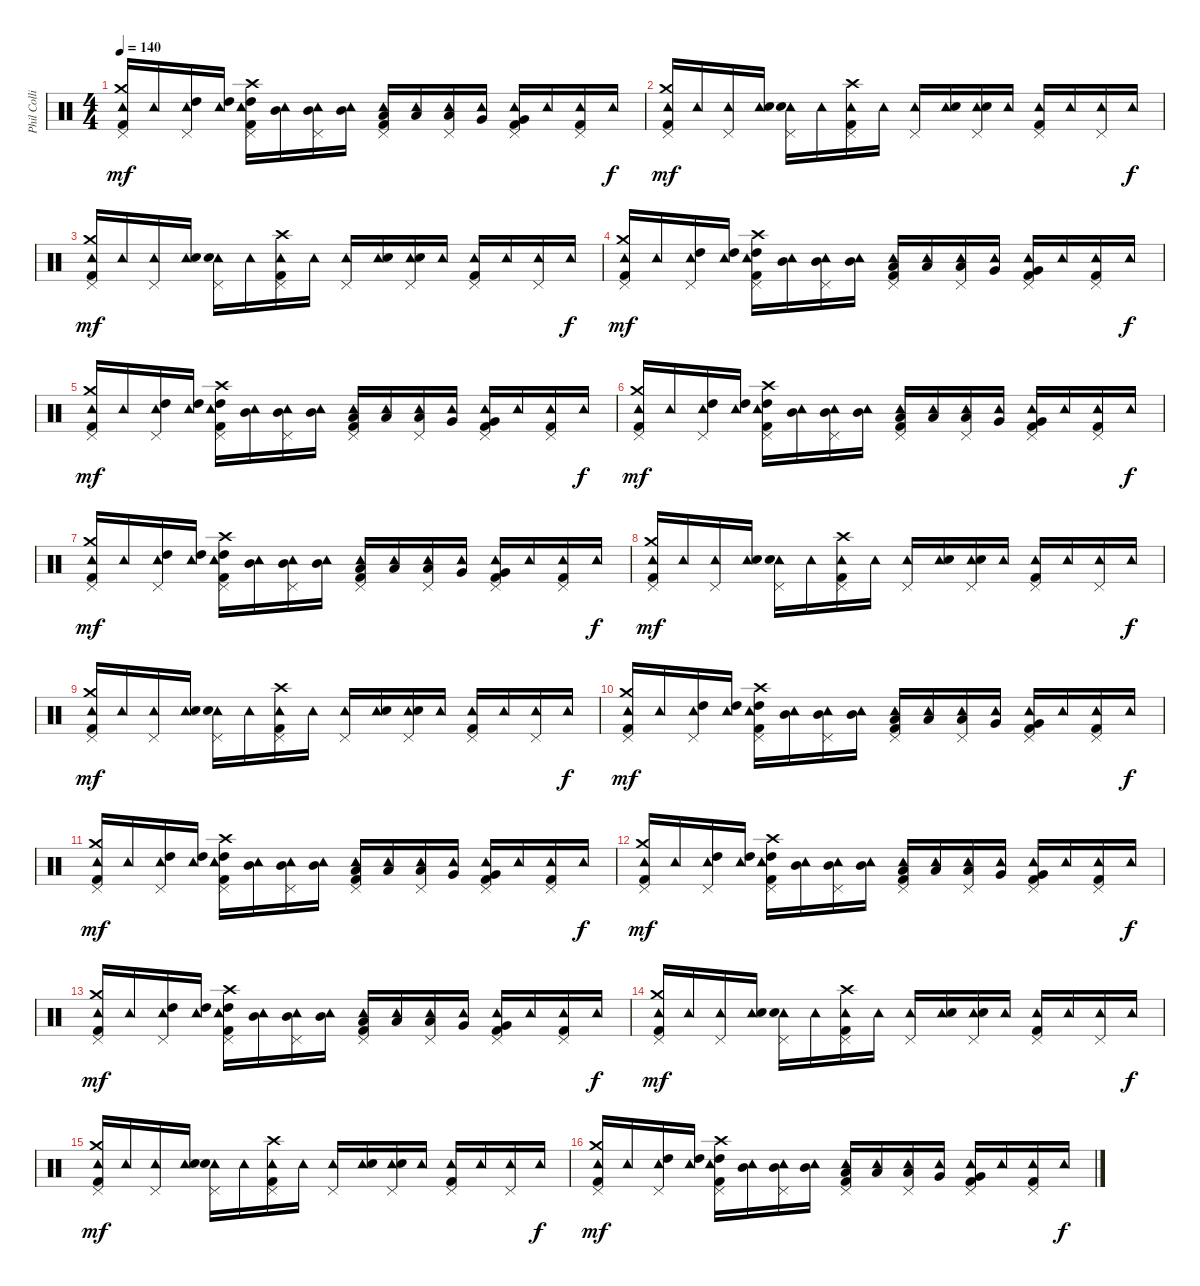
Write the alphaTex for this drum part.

\track ("Phil Collins (drums)" "Phil Colli") {instrument percussion}
\staff {score}
\articulation defaults
\ts (4 4)
\tempo 140
\clef neutral
\ks c
("Tambourine (hit)" "Crash medium (hit)" "Pedal Hi-Hat (hit)" "Kick (hit) 2").16{dy mf} "Tambourine (hit)".16 ("Tambourine (hit)" "High Tom (hit)" "Pedal Hi-Hat (hit)").16 ("Tambourine (hit)" "High Tom (hit)").16 ("Crash high (hit)" "Tambourine (hit)" "High Tom (hit)" "Pedal Hi-Hat (hit)" "Kick (hit) 2").16 ("Tambourine (hit)" "Mid Tom (hit)").16 ("Tambourine (hit)" "Mid Tom (hit)" "Pedal Hi-Hat (hit)").16 ("Tambourine (hit)" "Mid Tom (hit)").16 ("Tambourine (hit)" "Low Tom (hit)" "Pedal Hi-Hat (hit)" "Kick (hit) 2").16 ("Tambourine (hit)" "Low Tom (hit)").16 ("Tambourine (hit)" "Low Tom (hit)" "Pedal Hi-Hat (hit)").16 ("Tambourine (hit)" "Very Low Tom (hit)").16 ("Tambourine (hit)" "Very Low Tom (hit)" "Pedal Hi-Hat (hit)" "Kick (hit) 2").16 "Tambourine (hit)".16 ("Tambourine (hit)" "Pedal Hi-Hat (hit)" "Kick (hit) 2").16 "Tambourine (hit)".16{dy f} |
("Tambourine (hit)" "Crash medium (hit)" "Pedal Hi-Hat (hit)" "Kick (hit) 2").16{dy mf} "Tambourine (hit)".16 ("Tambourine (hit)" "Pedal Hi-Hat (hit)").16 ("Tambourine (hit)" "Electric Snare (hit)").16 ("Tambourine (hit)" "Pedal Hi-Hat (hit)" "Electric Snare (hit)").16 "Tambourine (hit)".16 ("Tambourine (hit)" "Crash high (hit)" "Pedal Hi-Hat (hit)" "Kick (hit) 2").16 "Tambourine (hit)".16 ("Tambourine (hit)" "Pedal Hi-Hat (hit)").16 ("Tambourine (hit)" "Electric Snare (hit)").16 ("Tambourine (hit)" "Pedal Hi-Hat (hit)" "Electric Snare (hit)").16 "Tambourine (hit)".16 ("Tambourine (hit)" "Pedal Hi-Hat (hit)" "Kick (hit) 2").16 "Tambourine (hit)".16 ("Tambourine (hit)" "Pedal Hi-Hat (hit)").16 "Tambourine (hit)".16{dy f} |
("Tambourine (hit)" "Crash medium (hit)" "Pedal Hi-Hat (hit)" "Kick (hit) 2").16{dy mf} "Tambourine (hit)".16 ("Tambourine (hit)" "Pedal Hi-Hat (hit)").16 ("Tambourine (hit)" "Electric Snare (hit)").16 ("Tambourine (hit)" "Pedal Hi-Hat (hit)" "Electric Snare (hit)").16 "Tambourine (hit)".16 ("Tambourine (hit)" "Crash high (hit)" "Pedal Hi-Hat (hit)" "Kick (hit) 2").16 "Tambourine (hit)".16 ("Tambourine (hit)" "Pedal Hi-Hat (hit)").16 ("Tambourine (hit)" "Electric Snare (hit)").16 ("Tambourine (hit)" "Pedal Hi-Hat (hit)" "Electric Snare (hit)").16 "Tambourine (hit)".16 ("Tambourine (hit)" "Pedal Hi-Hat (hit)" "Kick (hit) 2").16 "Tambourine (hit)".16 ("Tambourine (hit)" "Pedal Hi-Hat (hit)").16 "Tambourine (hit)".16{dy f} |
("Tambourine (hit)" "Crash medium (hit)" "Pedal Hi-Hat (hit)" "Kick (hit) 2").16{dy mf} "Tambourine (hit)".16 ("Tambourine (hit)" "High Tom (hit)" "Pedal Hi-Hat (hit)").16 ("Tambourine (hit)" "High Tom (hit)").16 ("Crash high (hit)" "Tambourine (hit)" "High Tom (hit)" "Pedal Hi-Hat (hit)" "Kick (hit) 2").16 ("Tambourine (hit)" "Mid Tom (hit)").16 ("Tambourine (hit)" "Mid Tom (hit)" "Pedal Hi-Hat (hit)").16 ("Tambourine (hit)" "Mid Tom (hit)").16 ("Tambourine (hit)" "Low Tom (hit)" "Pedal Hi-Hat (hit)" "Kick (hit) 2").16 ("Tambourine (hit)" "Low Tom (hit)").16 ("Tambourine (hit)" "Low Tom (hit)" "Pedal Hi-Hat (hit)").16 ("Tambourine (hit)" "Very Low Tom (hit)").16 ("Tambourine (hit)" "Very Low Tom (hit)" "Pedal Hi-Hat (hit)" "Kick (hit) 2").16 "Tambourine (hit)".16 ("Tambourine (hit)" "Pedal Hi-Hat (hit)" "Kick (hit) 2").16 "Tambourine (hit)".16{dy f} |
("Tambourine (hit)" "Crash medium (hit)" "Pedal Hi-Hat (hit)" "Kick (hit) 2").16{dy mf} "Tambourine (hit)".16 ("Tambourine (hit)" "High Tom (hit)" "Pedal Hi-Hat (hit)").16 ("Tambourine (hit)" "High Tom (hit)").16 ("Crash high (hit)" "Tambourine (hit)" "High Tom (hit)" "Pedal Hi-Hat (hit)" "Kick (hit) 2").16 ("Tambourine (hit)" "Mid Tom (hit)").16 ("Tambourine (hit)" "Mid Tom (hit)" "Pedal Hi-Hat (hit)").16 ("Tambourine (hit)" "Mid Tom (hit)").16 ("Tambourine (hit)" "Low Tom (hit)" "Pedal Hi-Hat (hit)" "Kick (hit) 2").16 ("Tambourine (hit)" "Low Tom (hit)").16 ("Tambourine (hit)" "Low Tom (hit)" "Pedal Hi-Hat (hit)").16 ("Tambourine (hit)" "Very Low Tom (hit)").16 ("Tambourine (hit)" "Very Low Tom (hit)" "Pedal Hi-Hat (hit)" "Kick (hit) 2").16 "Tambourine (hit)".16 ("Tambourine (hit)" "Pedal Hi-Hat (hit)" "Kick (hit) 2").16 "Tambourine (hit)".16{dy f} |
("Tambourine (hit)" "Crash medium (hit)" "Pedal Hi-Hat (hit)" "Kick (hit) 2").16{dy mf} "Tambourine (hit)".16 ("Tambourine (hit)" "High Tom (hit)" "Pedal Hi-Hat (hit)").16 ("Tambourine (hit)" "High Tom (hit)").16 ("Crash high (hit)" "Tambourine (hit)" "High Tom (hit)" "Pedal Hi-Hat (hit)" "Kick (hit) 2").16 ("Tambourine (hit)" "Mid Tom (hit)").16 ("Tambourine (hit)" "Mid Tom (hit)" "Pedal Hi-Hat (hit)").16 ("Tambourine (hit)" "Mid Tom (hit)").16 ("Tambourine (hit)" "Low Tom (hit)" "Pedal Hi-Hat (hit)" "Kick (hit) 2").16 ("Tambourine (hit)" "Low Tom (hit)").16 ("Tambourine (hit)" "Low Tom (hit)" "Pedal Hi-Hat (hit)").16 ("Tambourine (hit)" "Very Low Tom (hit)").16 ("Tambourine (hit)" "Very Low Tom (hit)" "Pedal Hi-Hat (hit)" "Kick (hit) 2").16 "Tambourine (hit)".16 ("Tambourine (hit)" "Pedal Hi-Hat (hit)" "Kick (hit) 2").16 "Tambourine (hit)".16{dy f} |
("Tambourine (hit)" "Crash medium (hit)" "Pedal Hi-Hat (hit)" "Kick (hit) 2").16{dy mf} "Tambourine (hit)".16 ("Tambourine (hit)" "High Tom (hit)" "Pedal Hi-Hat (hit)").16 ("Tambourine (hit)" "High Tom (hit)").16 ("Crash high (hit)" "Tambourine (hit)" "High Tom (hit)" "Pedal Hi-Hat (hit)" "Kick (hit) 2").16 ("Tambourine (hit)" "Mid Tom (hit)").16 ("Tambourine (hit)" "Mid Tom (hit)" "Pedal Hi-Hat (hit)").16 ("Tambourine (hit)" "Mid Tom (hit)").16 ("Tambourine (hit)" "Low Tom (hit)" "Pedal Hi-Hat (hit)" "Kick (hit) 2").16 ("Tambourine (hit)" "Low Tom (hit)").16 ("Tambourine (hit)" "Low Tom (hit)" "Pedal Hi-Hat (hit)").16 ("Tambourine (hit)" "Very Low Tom (hit)").16 ("Tambourine (hit)" "Very Low Tom (hit)" "Pedal Hi-Hat (hit)" "Kick (hit) 2").16 "Tambourine (hit)".16 ("Tambourine (hit)" "Pedal Hi-Hat (hit)" "Kick (hit) 2").16 "Tambourine (hit)".16{dy f} |
("Tambourine (hit)" "Crash medium (hit)" "Pedal Hi-Hat (hit)" "Kick (hit) 2").16{dy mf} "Tambourine (hit)".16 ("Tambourine (hit)" "Pedal Hi-Hat (hit)").16 ("Tambourine (hit)" "Electric Snare (hit)").16 ("Tambourine (hit)" "Pedal Hi-Hat (hit)" "Electric Snare (hit)").16 "Tambourine (hit)".16 ("Tambourine (hit)" "Crash high (hit)" "Pedal Hi-Hat (hit)" "Kick (hit) 2").16 "Tambourine (hit)".16 ("Tambourine (hit)" "Pedal Hi-Hat (hit)").16 ("Tambourine (hit)" "Electric Snare (hit)").16 ("Tambourine (hit)" "Pedal Hi-Hat (hit)" "Electric Snare (hit)").16 "Tambourine (hit)".16 ("Tambourine (hit)" "Pedal Hi-Hat (hit)" "Kick (hit) 2").16 "Tambourine (hit)".16 ("Tambourine (hit)" "Pedal Hi-Hat (hit)").16 "Tambourine (hit)".16{dy f} |
("Tambourine (hit)" "Crash medium (hit)" "Pedal Hi-Hat (hit)" "Kick (hit) 2").16{dy mf} "Tambourine (hit)".16 ("Tambourine (hit)" "Pedal Hi-Hat (hit)").16 ("Tambourine (hit)" "Electric Snare (hit)").16 ("Tambourine (hit)" "Pedal Hi-Hat (hit)" "Electric Snare (hit)").16 "Tambourine (hit)".16 ("Tambourine (hit)" "Crash high (hit)" "Pedal Hi-Hat (hit)" "Kick (hit) 2").16 "Tambourine (hit)".16 ("Tambourine (hit)" "Pedal Hi-Hat (hit)").16 ("Tambourine (hit)" "Electric Snare (hit)").16 ("Tambourine (hit)" "Pedal Hi-Hat (hit)" "Electric Snare (hit)").16 "Tambourine (hit)".16 ("Tambourine (hit)" "Pedal Hi-Hat (hit)" "Kick (hit) 2").16 "Tambourine (hit)".16 ("Tambourine (hit)" "Pedal Hi-Hat (hit)").16 "Tambourine (hit)".16{dy f} |
("Tambourine (hit)" "Crash medium (hit)" "Pedal Hi-Hat (hit)" "Kick (hit) 2").16{dy mf} "Tambourine (hit)".16 ("Tambourine (hit)" "High Tom (hit)" "Pedal Hi-Hat (hit)").16 ("Tambourine (hit)" "High Tom (hit)").16 ("Crash high (hit)" "Tambourine (hit)" "High Tom (hit)" "Pedal Hi-Hat (hit)" "Kick (hit) 2").16 ("Tambourine (hit)" "Mid Tom (hit)").16 ("Tambourine (hit)" "Mid Tom (hit)" "Pedal Hi-Hat (hit)").16 ("Tambourine (hit)" "Mid Tom (hit)").16 ("Tambourine (hit)" "Low Tom (hit)" "Pedal Hi-Hat (hit)" "Kick (hit) 2").16 ("Tambourine (hit)" "Low Tom (hit)").16 ("Tambourine (hit)" "Low Tom (hit)" "Pedal Hi-Hat (hit)").16 ("Tambourine (hit)" "Very Low Tom (hit)").16 ("Tambourine (hit)" "Very Low Tom (hit)" "Pedal Hi-Hat (hit)" "Kick (hit) 2").16 "Tambourine (hit)".16 ("Tambourine (hit)" "Pedal Hi-Hat (hit)" "Kick (hit) 2").16 "Tambourine (hit)".16{dy f} |
("Tambourine (hit)" "Crash medium (hit)" "Pedal Hi-Hat (hit)" "Kick (hit) 2").16{dy mf} "Tambourine (hit)".16 ("Tambourine (hit)" "High Tom (hit)" "Pedal Hi-Hat (hit)").16 ("Tambourine (hit)" "High Tom (hit)").16 ("Crash high (hit)" "Tambourine (hit)" "High Tom (hit)" "Pedal Hi-Hat (hit)" "Kick (hit) 2").16 ("Tambourine (hit)" "Mid Tom (hit)").16 ("Tambourine (hit)" "Mid Tom (hit)" "Pedal Hi-Hat (hit)").16 ("Tambourine (hit)" "Mid Tom (hit)").16 ("Tambourine (hit)" "Low Tom (hit)" "Pedal Hi-Hat (hit)" "Kick (hit) 2").16 ("Tambourine (hit)" "Low Tom (hit)").16 ("Tambourine (hit)" "Low Tom (hit)" "Pedal Hi-Hat (hit)").16 ("Tambourine (hit)" "Very Low Tom (hit)").16 ("Tambourine (hit)" "Very Low Tom (hit)" "Pedal Hi-Hat (hit)" "Kick (hit) 2").16 "Tambourine (hit)".16 ("Tambourine (hit)" "Pedal Hi-Hat (hit)" "Kick (hit) 2").16 "Tambourine (hit)".16{dy f} |
("Tambourine (hit)" "Crash medium (hit)" "Pedal Hi-Hat (hit)" "Kick (hit) 2").16{dy mf} "Tambourine (hit)".16 ("Tambourine (hit)" "High Tom (hit)" "Pedal Hi-Hat (hit)").16 ("Tambourine (hit)" "High Tom (hit)").16 ("Crash high (hit)" "Tambourine (hit)" "High Tom (hit)" "Pedal Hi-Hat (hit)" "Kick (hit) 2").16 ("Tambourine (hit)" "Mid Tom (hit)").16 ("Tambourine (hit)" "Mid Tom (hit)" "Pedal Hi-Hat (hit)").16 ("Tambourine (hit)" "Mid Tom (hit)").16 ("Tambourine (hit)" "Low Tom (hit)" "Pedal Hi-Hat (hit)" "Kick (hit) 2").16 ("Tambourine (hit)" "Low Tom (hit)").16 ("Tambourine (hit)" "Low Tom (hit)" "Pedal Hi-Hat (hit)").16 ("Tambourine (hit)" "Very Low Tom (hit)").16 ("Tambourine (hit)" "Very Low Tom (hit)" "Pedal Hi-Hat (hit)" "Kick (hit) 2").16 "Tambourine (hit)".16 ("Tambourine (hit)" "Pedal Hi-Hat (hit)" "Kick (hit) 2").16 "Tambourine (hit)".16{dy f} |
("Tambourine (hit)" "Crash medium (hit)" "Pedal Hi-Hat (hit)" "Kick (hit) 2").16{dy mf} "Tambourine (hit)".16 ("Tambourine (hit)" "High Tom (hit)" "Pedal Hi-Hat (hit)").16 ("Tambourine (hit)" "High Tom (hit)").16 ("Crash high (hit)" "Tambourine (hit)" "High Tom (hit)" "Pedal Hi-Hat (hit)" "Kick (hit) 2").16 ("Tambourine (hit)" "Mid Tom (hit)").16 ("Tambourine (hit)" "Mid Tom (hit)" "Pedal Hi-Hat (hit)").16 ("Tambourine (hit)" "Mid Tom (hit)").16 ("Tambourine (hit)" "Low Tom (hit)" "Pedal Hi-Hat (hit)" "Kick (hit) 2").16 ("Tambourine (hit)" "Low Tom (hit)").16 ("Tambourine (hit)" "Low Tom (hit)" "Pedal Hi-Hat (hit)").16 ("Tambourine (hit)" "Very Low Tom (hit)").16 ("Tambourine (hit)" "Very Low Tom (hit)" "Pedal Hi-Hat (hit)" "Kick (hit) 2").16 "Tambourine (hit)".16 ("Tambourine (hit)" "Pedal Hi-Hat (hit)" "Kick (hit) 2").16 "Tambourine (hit)".16{dy f} |
("Tambourine (hit)" "Crash medium (hit)" "Pedal Hi-Hat (hit)" "Kick (hit) 2").16{dy mf} "Tambourine (hit)".16 ("Tambourine (hit)" "Pedal Hi-Hat (hit)").16 ("Tambourine (hit)" "Electric Snare (hit)").16 ("Tambourine (hit)" "Pedal Hi-Hat (hit)" "Electric Snare (hit)").16 "Tambourine (hit)".16 ("Tambourine (hit)" "Crash high (hit)" "Pedal Hi-Hat (hit)" "Kick (hit) 2").16 "Tambourine (hit)".16 ("Tambourine (hit)" "Pedal Hi-Hat (hit)").16 ("Tambourine (hit)" "Electric Snare (hit)").16 ("Tambourine (hit)" "Pedal Hi-Hat (hit)" "Electric Snare (hit)").16 "Tambourine (hit)".16 ("Tambourine (hit)" "Pedal Hi-Hat (hit)" "Kick (hit) 2").16 "Tambourine (hit)".16 ("Tambourine (hit)" "Pedal Hi-Hat (hit)").16 "Tambourine (hit)".16{dy f} |
("Tambourine (hit)" "Crash medium (hit)" "Pedal Hi-Hat (hit)" "Kick (hit) 2").16{dy mf} "Tambourine (hit)".16 ("Tambourine (hit)" "Pedal Hi-Hat (hit)").16 ("Tambourine (hit)" "Electric Snare (hit)").16 ("Tambourine (hit)" "Pedal Hi-Hat (hit)" "Electric Snare (hit)").16 "Tambourine (hit)".16 ("Tambourine (hit)" "Crash high (hit)" "Pedal Hi-Hat (hit)" "Kick (hit) 2").16 "Tambourine (hit)".16 ("Tambourine (hit)" "Pedal Hi-Hat (hit)").16 ("Tambourine (hit)" "Electric Snare (hit)").16 ("Tambourine (hit)" "Pedal Hi-Hat (hit)" "Electric Snare (hit)").16 "Tambourine (hit)".16 ("Tambourine (hit)" "Pedal Hi-Hat (hit)" "Kick (hit) 2").16 "Tambourine (hit)".16 ("Tambourine (hit)" "Pedal Hi-Hat (hit)").16 "Tambourine (hit)".16{dy f} |
("Tambourine (hit)" "Crash medium (hit)" "Pedal Hi-Hat (hit)" "Kick (hit) 2").16{dy mf} "Tambourine (hit)".16 ("Tambourine (hit)" "High Tom (hit)" "Pedal Hi-Hat (hit)").16 ("Tambourine (hit)" "High Tom (hit)").16 ("Crash high (hit)" "Tambourine (hit)" "High Tom (hit)" "Pedal Hi-Hat (hit)" "Kick (hit) 2").16 ("Tambourine (hit)" "Mid Tom (hit)").16 ("Tambourine (hit)" "Mid Tom (hit)" "Pedal Hi-Hat (hit)").16 ("Tambourine (hit)" "Mid Tom (hit)").16 ("Tambourine (hit)" "Low Tom (hit)" "Pedal Hi-Hat (hit)" "Kick (hit) 2").16 ("Tambourine (hit)" "Low Tom (hit)").16 ("Tambourine (hit)" "Low Tom (hit)" "Pedal Hi-Hat (hit)").16 ("Tambourine (hit)" "Very Low Tom (hit)").16 ("Tambourine (hit)" "Very Low Tom (hit)" "Pedal Hi-Hat (hit)" "Kick (hit) 2").16 "Tambourine (hit)".16 ("Tambourine (hit)" "Pedal Hi-Hat (hit)" "Kick (hit) 2").16 "Tambourine (hit)".16{dy f}
